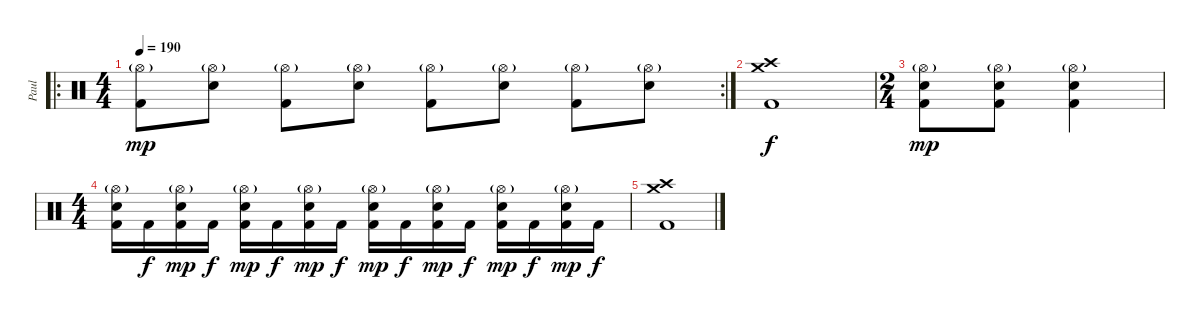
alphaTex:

\track ("Paul" "Paul") {instrument percussion}
\staff {score}
\articulation defaults
\ro
\rc 2
\ts (4 4)
\tempo 190
\clef neutral
\ks c
("Hi-Hat (open)"{g} "Kick (hit) 2").8{dy mp} ("Hi-Hat (open)"{g} "Electric Snare (hit)").8 ("Hi-Hat (open)"{g} "Kick (hit) 2").8 ("Hi-Hat (open)"{g} "Electric Snare (hit)").8 ("Hi-Hat (open)"{g} "Kick (hit) 2").8 ("Hi-Hat (open)"{g} "Electric Snare (hit)").8 ("Hi-Hat (open)"{g} "Kick (hit) 2").8 ("Hi-Hat (open)"{g} "Electric Snare (hit)").8 |
("Crash medium (hit)" "Crash high (hit)" "Kick (hit) 2").1{dy f} |
\ts (2 4)
("Hi-Hat (open)"{g} "Electric Snare (hit)" "Kick (hit) 2").8{dy mp} ("Hi-Hat (open)"{g} "Electric Snare (hit)" "Kick (hit) 2").8 ("Hi-Hat (open)"{g} "Electric Snare (hit)" "Kick (hit) 2").4 |
\ts (4 4)
("Hi-Hat (open)"{g} "Electric Snare (hit)" "Kick (hit) 2").16 "Kick (hit) 2".16{dy f} ("Hi-Hat (open)"{g} "Electric Snare (hit)" "Kick (hit) 2").16{dy mp} "Kick (hit) 2".16{dy f} ("Hi-Hat (open)"{g} "Electric Snare (hit)" "Kick (hit) 2").16{dy mp} "Kick (hit) 2".16{dy f} ("Hi-Hat (open)"{g} "Electric Snare (hit)" "Kick (hit) 2").16{dy mp} "Kick (hit) 2".16{dy f} ("Hi-Hat (open)"{g} "Electric Snare (hit)" "Kick (hit) 2").16{dy mp} "Kick (hit) 2".16{dy f} ("Hi-Hat (open)"{g} "Electric Snare (hit)" "Kick (hit) 2").16{dy mp} "Kick (hit) 2".16{dy f} ("Hi-Hat (open)"{g} "Electric Snare (hit)" "Kick (hit) 2").16{dy mp} "Kick (hit) 2".16{dy f} ("Hi-Hat (open)"{g} "Electric Snare (hit)" "Kick (hit) 2").16{dy mp} "Kick (hit) 2".16{dy f} |
("Crash high (hit)" "Crash medium (hit)" "Kick (hit) 2").1
